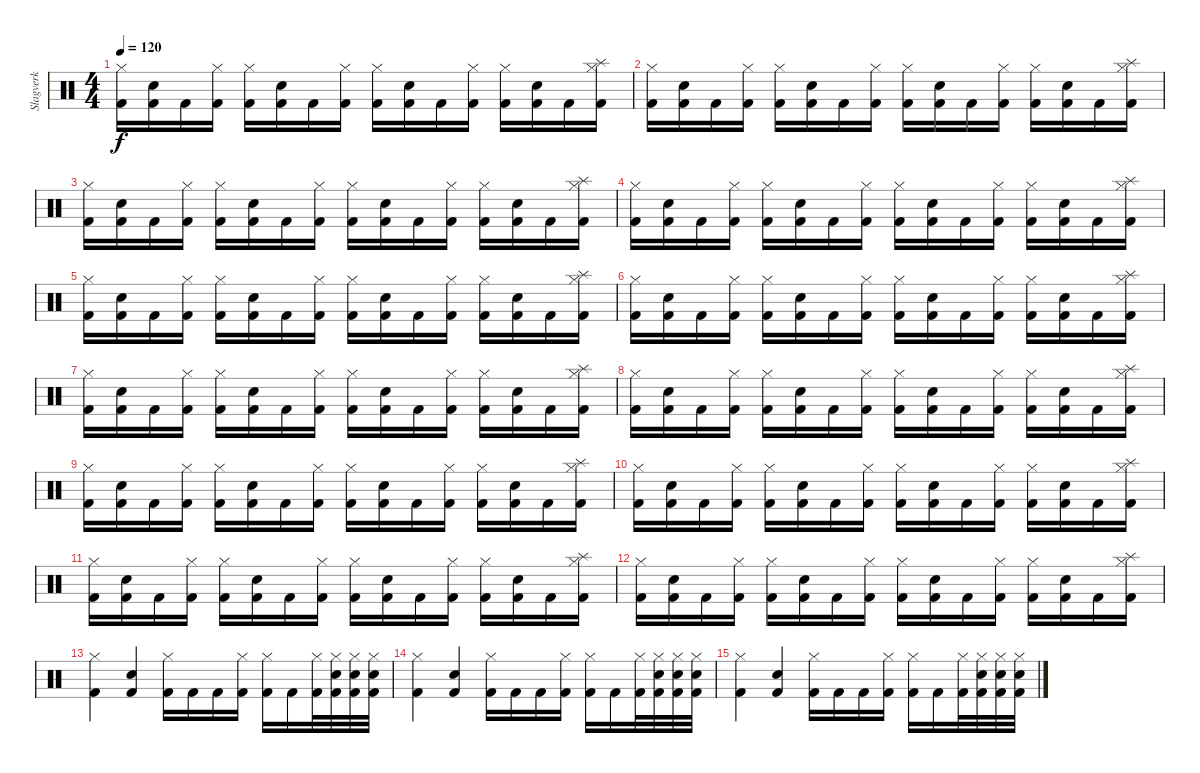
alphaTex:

\track ("Slagverk" "Slagverk") {instrument percussion}
\staff {score}
\articulation defaults
\ts (4 4)
\tempo 120
\clef neutral
\ks c
("Kick (hit) 2" "Hi-Hat (closed)").16{dy f} ("Kick (hit) 2" "Electric Snare (hit)").16 "Kick (hit) 2".16 ("Kick (hit) 2" "Hi-Hat (closed)").16 ("Kick (hit) 2" "Hi-Hat (closed)").16 ("Kick (hit) 2" "Electric Snare (hit)").16 "Kick (hit) 2".16 ("Kick (hit) 2" "Hi-Hat (closed)").16 ("Kick (hit) 2" "Hi-Hat (closed)").16 ("Kick (hit) 2" "Electric Snare (hit)").16 "Kick (hit) 2".16 ("Kick (hit) 2" "Hi-Hat (closed)").16 ("Kick (hit) 2" "Hi-Hat (closed)").16 ("Kick (hit) 2" "Electric Snare (hit)").16 "Kick (hit) 2".16 ("Kick (hit) 2" "Hi-Hat (closed)" "Splash (hit)").16 |
("Kick (hit) 2" "Hi-Hat (closed)").16 ("Kick (hit) 2" "Electric Snare (hit)").16 "Kick (hit) 2".16 ("Kick (hit) 2" "Hi-Hat (closed)").16 ("Kick (hit) 2" "Hi-Hat (closed)").16 ("Kick (hit) 2" "Electric Snare (hit)").16 "Kick (hit) 2".16 ("Kick (hit) 2" "Hi-Hat (closed)").16 ("Kick (hit) 2" "Hi-Hat (closed)").16 ("Kick (hit) 2" "Electric Snare (hit)").16 "Kick (hit) 2".16 ("Kick (hit) 2" "Hi-Hat (closed)").16 ("Kick (hit) 2" "Hi-Hat (closed)").16 ("Kick (hit) 2" "Electric Snare (hit)").16 "Kick (hit) 2".16 ("Kick (hit) 2" "Hi-Hat (closed)" "Splash (hit)").16 |
("Kick (hit) 2" "Hi-Hat (closed)").16 ("Kick (hit) 2" "Electric Snare (hit)").16 "Kick (hit) 2".16 ("Kick (hit) 2" "Hi-Hat (closed)").16 ("Kick (hit) 2" "Hi-Hat (closed)").16 ("Kick (hit) 2" "Electric Snare (hit)").16 "Kick (hit) 2".16 ("Kick (hit) 2" "Hi-Hat (closed)").16 ("Kick (hit) 2" "Hi-Hat (closed)").16 ("Kick (hit) 2" "Electric Snare (hit)").16 "Kick (hit) 2".16 ("Kick (hit) 2" "Hi-Hat (closed)").16 ("Kick (hit) 2" "Hi-Hat (closed)").16 ("Kick (hit) 2" "Electric Snare (hit)").16 "Kick (hit) 2".16 ("Kick (hit) 2" "Hi-Hat (closed)" "Splash (hit)").16 |
("Kick (hit) 2" "Hi-Hat (closed)").16 ("Kick (hit) 2" "Electric Snare (hit)").16 "Kick (hit) 2".16 ("Kick (hit) 2" "Hi-Hat (closed)").16 ("Kick (hit) 2" "Hi-Hat (closed)").16 ("Kick (hit) 2" "Electric Snare (hit)").16 "Kick (hit) 2".16 ("Kick (hit) 2" "Hi-Hat (closed)").16 ("Kick (hit) 2" "Hi-Hat (closed)").16 ("Kick (hit) 2" "Electric Snare (hit)").16 "Kick (hit) 2".16 ("Kick (hit) 2" "Hi-Hat (closed)").16 ("Kick (hit) 2" "Hi-Hat (closed)").16 ("Kick (hit) 2" "Electric Snare (hit)").16 "Kick (hit) 2".16 ("Kick (hit) 2" "Hi-Hat (closed)" "Splash (hit)").16 |
("Kick (hit) 2" "Hi-Hat (closed)").16 ("Kick (hit) 2" "Electric Snare (hit)").16 "Kick (hit) 2".16 ("Kick (hit) 2" "Hi-Hat (closed)").16 ("Kick (hit) 2" "Hi-Hat (closed)").16 ("Kick (hit) 2" "Electric Snare (hit)").16 "Kick (hit) 2".16 ("Kick (hit) 2" "Hi-Hat (closed)").16 ("Kick (hit) 2" "Hi-Hat (closed)").16 ("Kick (hit) 2" "Electric Snare (hit)").16 "Kick (hit) 2".16 ("Kick (hit) 2" "Hi-Hat (closed)").16 ("Kick (hit) 2" "Hi-Hat (closed)").16 ("Kick (hit) 2" "Electric Snare (hit)").16 "Kick (hit) 2".16 ("Kick (hit) 2" "Hi-Hat (closed)" "Splash (hit)").16 |
("Kick (hit) 2" "Hi-Hat (closed)").16 ("Kick (hit) 2" "Electric Snare (hit)").16 "Kick (hit) 2".16 ("Kick (hit) 2" "Hi-Hat (closed)").16 ("Kick (hit) 2" "Hi-Hat (closed)").16 ("Kick (hit) 2" "Electric Snare (hit)").16 "Kick (hit) 2".16 ("Kick (hit) 2" "Hi-Hat (closed)").16 ("Kick (hit) 2" "Hi-Hat (closed)").16 ("Kick (hit) 2" "Electric Snare (hit)").16 "Kick (hit) 2".16 ("Kick (hit) 2" "Hi-Hat (closed)").16 ("Kick (hit) 2" "Hi-Hat (closed)").16 ("Kick (hit) 2" "Electric Snare (hit)").16 "Kick (hit) 2".16 ("Kick (hit) 2" "Hi-Hat (closed)" "Splash (hit)").16 |
("Kick (hit) 2" "Hi-Hat (closed)").16 ("Kick (hit) 2" "Electric Snare (hit)").16 "Kick (hit) 2".16 ("Kick (hit) 2" "Hi-Hat (closed)").16 ("Kick (hit) 2" "Hi-Hat (closed)").16 ("Kick (hit) 2" "Electric Snare (hit)").16 "Kick (hit) 2".16 ("Kick (hit) 2" "Hi-Hat (closed)").16 ("Kick (hit) 2" "Hi-Hat (closed)").16 ("Kick (hit) 2" "Electric Snare (hit)").16 "Kick (hit) 2".16 ("Kick (hit) 2" "Hi-Hat (closed)").16 ("Kick (hit) 2" "Hi-Hat (closed)").16 ("Kick (hit) 2" "Electric Snare (hit)").16 "Kick (hit) 2".16 ("Kick (hit) 2" "Hi-Hat (closed)" "Splash (hit)").16 |
("Kick (hit) 2" "Hi-Hat (closed)").16 ("Kick (hit) 2" "Electric Snare (hit)").16 "Kick (hit) 2".16 ("Kick (hit) 2" "Hi-Hat (closed)").16 ("Kick (hit) 2" "Hi-Hat (closed)").16 ("Kick (hit) 2" "Electric Snare (hit)").16 "Kick (hit) 2".16 ("Kick (hit) 2" "Hi-Hat (closed)").16 ("Kick (hit) 2" "Hi-Hat (closed)").16 ("Kick (hit) 2" "Electric Snare (hit)").16 "Kick (hit) 2".16 ("Kick (hit) 2" "Hi-Hat (closed)").16 ("Kick (hit) 2" "Hi-Hat (closed)").16 ("Kick (hit) 2" "Electric Snare (hit)").16 "Kick (hit) 2".16 ("Kick (hit) 2" "Hi-Hat (closed)" "Splash (hit)").16 |
("Kick (hit) 2" "Hi-Hat (closed)").16 ("Kick (hit) 2" "Electric Snare (hit)").16 "Kick (hit) 2".16 ("Kick (hit) 2" "Hi-Hat (closed)").16 ("Kick (hit) 2" "Hi-Hat (closed)").16 ("Kick (hit) 2" "Electric Snare (hit)").16 "Kick (hit) 2".16 ("Kick (hit) 2" "Hi-Hat (closed)").16 ("Kick (hit) 2" "Hi-Hat (closed)").16 ("Kick (hit) 2" "Electric Snare (hit)").16 "Kick (hit) 2".16 ("Kick (hit) 2" "Hi-Hat (closed)").16 ("Kick (hit) 2" "Hi-Hat (closed)").16 ("Kick (hit) 2" "Electric Snare (hit)").16 "Kick (hit) 2".16 ("Kick (hit) 2" "Hi-Hat (closed)" "Splash (hit)").16 |
("Kick (hit) 2" "Hi-Hat (closed)").16 ("Kick (hit) 2" "Electric Snare (hit)").16 "Kick (hit) 2".16 ("Kick (hit) 2" "Hi-Hat (closed)").16 ("Kick (hit) 2" "Hi-Hat (closed)").16 ("Kick (hit) 2" "Electric Snare (hit)").16 "Kick (hit) 2".16 ("Kick (hit) 2" "Hi-Hat (closed)").16 ("Kick (hit) 2" "Hi-Hat (closed)").16 ("Kick (hit) 2" "Electric Snare (hit)").16 "Kick (hit) 2".16 ("Kick (hit) 2" "Hi-Hat (closed)").16 ("Kick (hit) 2" "Hi-Hat (closed)").16 ("Kick (hit) 2" "Electric Snare (hit)").16 "Kick (hit) 2".16 ("Kick (hit) 2" "Hi-Hat (closed)" "Splash (hit)").16 |
("Kick (hit) 2" "Hi-Hat (closed)").16 ("Kick (hit) 2" "Electric Snare (hit)").16 "Kick (hit) 2".16 ("Kick (hit) 2" "Hi-Hat (closed)").16 ("Kick (hit) 2" "Hi-Hat (closed)").16 ("Kick (hit) 2" "Electric Snare (hit)").16 "Kick (hit) 2".16 ("Kick (hit) 2" "Hi-Hat (closed)").16 ("Kick (hit) 2" "Hi-Hat (closed)").16 ("Kick (hit) 2" "Electric Snare (hit)").16 "Kick (hit) 2".16 ("Kick (hit) 2" "Hi-Hat (closed)").16 ("Kick (hit) 2" "Hi-Hat (closed)").16 ("Kick (hit) 2" "Electric Snare (hit)").16 "Kick (hit) 2".16 ("Kick (hit) 2" "Hi-Hat (closed)" "Splash (hit)").16 |
("Kick (hit) 2" "Hi-Hat (closed)").16 ("Kick (hit) 2" "Electric Snare (hit)").16 "Kick (hit) 2".16 ("Kick (hit) 2" "Hi-Hat (closed)").16 ("Kick (hit) 2" "Hi-Hat (closed)").16 ("Kick (hit) 2" "Electric Snare (hit)").16 "Kick (hit) 2".16 ("Kick (hit) 2" "Hi-Hat (closed)").16 ("Kick (hit) 2" "Hi-Hat (closed)").16 ("Kick (hit) 2" "Electric Snare (hit)").16 "Kick (hit) 2".16 ("Kick (hit) 2" "Hi-Hat (closed)").16 ("Kick (hit) 2" "Hi-Hat (closed)").16 ("Kick (hit) 2" "Electric Snare (hit)").16 "Kick (hit) 2".16 ("Kick (hit) 2" "Hi-Hat (closed)" "Splash (hit)").16 |
("Kick (hit) 2" "Hi-Hat (closed)").4 ("Kick (hit) 2" "Electric Snare (hit)").4 ("Kick (hit) 2" "Hi-Hat (closed)").16 "Kick (hit) 2".16 "Kick (hit) 2".16 ("Kick (hit) 2" "Hi-Hat (closed)").16 ("Kick (hit) 2" "Hi-Hat (closed)").16 "Kick (hit) 2".16 ("Kick (hit) 2" "Hi-Hat (closed)").32 ("Kick (hit) 2" "Hi-Hat (closed)" "Electric Snare (hit)").32 ("Kick (hit) 2" "Hi-Hat (closed)" "Electric Snare (hit)").32 ("Kick (hit) 2" "Hi-Hat (closed)" "Electric Snare (hit)").32 |
("Kick (hit) 2" "Hi-Hat (closed)").4 ("Kick (hit) 2" "Electric Snare (hit)").4 ("Kick (hit) 2" "Hi-Hat (closed)").16 "Kick (hit) 2".16 "Kick (hit) 2".16 ("Kick (hit) 2" "Hi-Hat (closed)").16 ("Kick (hit) 2" "Hi-Hat (closed)").16 "Kick (hit) 2".16 ("Kick (hit) 2" "Hi-Hat (closed)").32 ("Kick (hit) 2" "Hi-Hat (closed)" "Electric Snare (hit)").32 ("Kick (hit) 2" "Hi-Hat (closed)" "Electric Snare (hit)").32 ("Kick (hit) 2" "Hi-Hat (closed)" "Electric Snare (hit)").32 |
("Kick (hit) 2" "Hi-Hat (closed)").4 ("Kick (hit) 2" "Electric Snare (hit)").4 ("Kick (hit) 2" "Hi-Hat (closed)").16 "Kick (hit) 2".16 "Kick (hit) 2".16 ("Kick (hit) 2" "Hi-Hat (closed)").16 ("Kick (hit) 2" "Hi-Hat (closed)").16 "Kick (hit) 2".16 ("Kick (hit) 2" "Hi-Hat (closed)").32 ("Kick (hit) 2" "Hi-Hat (closed)" "Electric Snare (hit)").32 ("Kick (hit) 2" "Hi-Hat (closed)" "Electric Snare (hit)").32 ("Kick (hit) 2" "Hi-Hat (closed)" "Electric Snare (hit)").32
